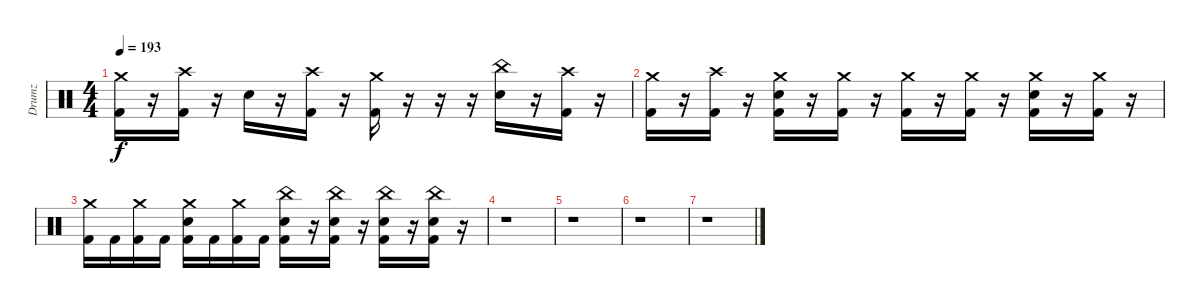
\track ("Drumz" "Drumz") {instrument percussion}
\staff {score}
\articulation defaults
\ts (4 4)
\tempo 193
\clef neutral
\ks c
("Crash medium (hit)" "Kick (hit) 2").16{dy f} r.16 ("Crash high (hit)" "Kick (hit) 2").16 r.16 "Electric Snare (hit)".16 r.16 ("Crash high (hit)" "Kick (hit) 2").16 r.16 ("Crash medium (hit)" "Kick (hit) 2").16 r.16 r.16 r.16 ("China (hit)" "Electric Snare (hit)").16 r.16 ("Crash high (hit)" "Kick (hit) 2").16 r.16 |
("Crash medium (hit)" "Kick (hit) 2").16 r.16 ("Crash high (hit)" "Kick (hit) 2").16 r.16 ("Crash medium (hit)" "Electric Snare (hit)" "Kick (hit) 2").16 r.16 ("Crash medium (hit)" "Kick (hit) 2").16 r.16 ("Crash medium (hit)" "Kick (hit) 2").16 r.16 ("Crash medium (hit)" "Kick (hit) 2").16 r.16 ("Crash medium (hit)" "Electric Snare (hit)" "Kick (hit) 2").16 r.16 ("Crash medium (hit)" "Kick (hit) 2").16 r.16 |
("Crash medium (hit)" "Kick (hit) 2").16 "Kick (hit) 2".16 ("Crash medium (hit)" "Kick (hit) 2").16 "Kick (hit) 2".16 ("Crash medium (hit)" "Electric Snare (hit)" "Kick (hit) 2").16 "Kick (hit) 2".16 ("Crash medium (hit)" "Kick (hit) 2").16 "Kick (hit) 2".16 ("China (hit)" "Electric Snare (hit)" "Kick (hit) 2").16 r.16 ("China (hit)" "Electric Snare (hit)" "Kick (hit) 2").16 r.16 ("China (hit)" "Electric Snare (hit)" "Kick (hit) 2").16 r.16 ("China (hit)" "Electric Snare (hit)" "Kick (hit) 2").16 r.16 |
r.1 |
r.1 |
r.1 |
r.1
